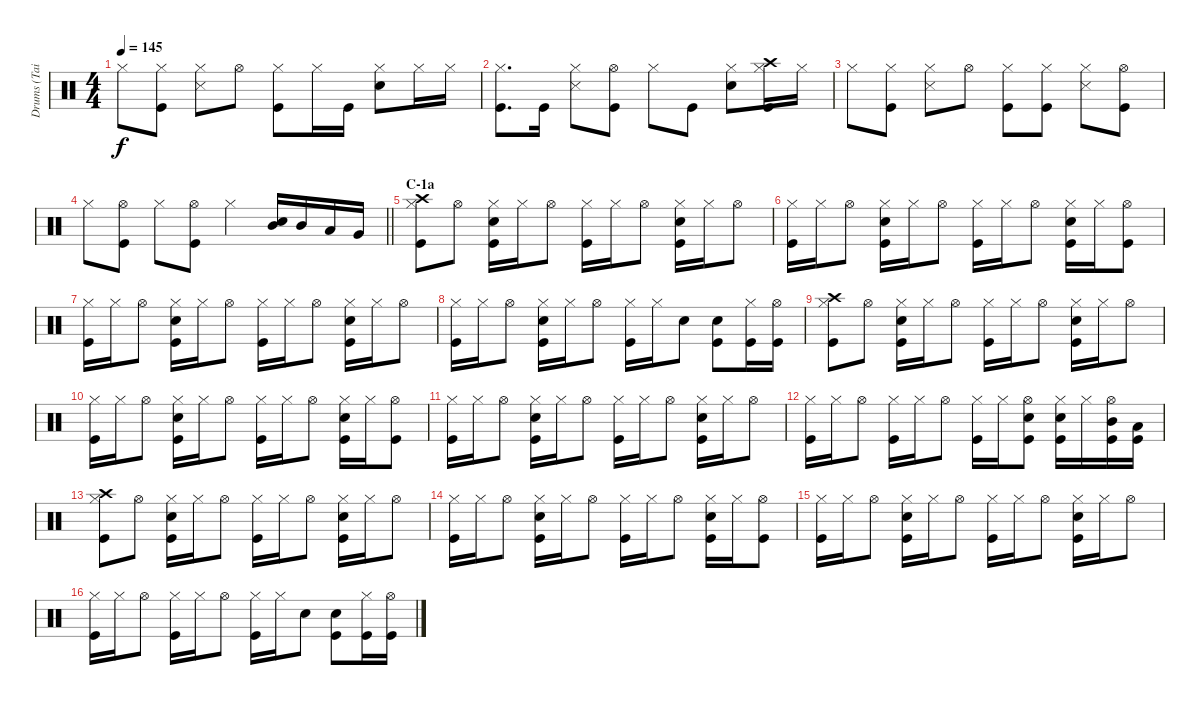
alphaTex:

\track ("Drums (Tainaka Ritsu)" "Drums (Tai") {instrument percussion}
\staff {score}
\articulation defaults
\ts (4 4)
\tempo 145
\clef neutral
\ks c "Hi-Hat (closed)".8{dy f}
("Hi-Hat (closed)" "Kick (hit)").8 ("Hi-Hat (closed)" "Snare (side stick) 3").8 "Hi-Hat (open)".8 ("Hi-Hat (closed)" "Kick (hit)").8 "Hi-Hat (closed)".16 "Kick (hit)".16 ("Hi-Hat (closed)" "Snare (hit) 2").8 "Hi-Hat (closed)".16 "Hi-Hat (closed)".16 |
("Hi-Hat (closed)" "Kick (hit)").8{d} "Kick (hit)".16 ("Hi-Hat (closed)" "Snare (side stick) 3").8 ("Hi-Hat (open)" "Kick (hit)").8 "Hi-Hat (closed)".8 "Kick (hit)".8 ("Hi-Hat (closed)" "Snare (hit) 2").8 ("Hi-Hat (closed)" "Crash high (hit)" "Kick (hit)").16 "Hi-Hat (closed)".16 |
"Hi-Hat (closed)".8 ("Hi-Hat (closed)" "Kick (hit)").8 ("Hi-Hat (closed)" "Snare (side stick) 3").8 "Hi-Hat (open)".8 ("Hi-Hat (closed)" "Kick (hit)").8 ("Hi-Hat (closed)" "Kick (hit)").8 ("Hi-Hat (closed)" "Snare (side stick) 3").8 ("Hi-Hat (open)" "Kick (hit)").8 |
\barLineRight lightlight "Hi-Hat (closed)".8
("Hi-Hat (open)" "Kick (hit)").8 "Hi-Hat (closed)".8 ("Hi-Hat (open)" "Kick (hit)").8 "Hi-Hat (closed)".4 ("Snare (hit) 2" "Mid Tom (hit)").16 "Mid Tom (hit)".16 "Low Tom (hit)".16 "Very Low Tom (hit)".16 |
\section ("" "C-1a")
("Crash high (hit)" "Hi-Hat (closed)" "Kick (hit)").8 "Hi-Hat (open)".8 ("Hi-Hat (closed)" "Snare (hit) 2" "Kick (hit)").16 "Hi-Hat (closed)".16 "Hi-Hat (open)".8 ("Hi-Hat (closed)" "Kick (hit)").16 "Hi-Hat (closed)".16 "Hi-Hat (open)".8 ("Hi-Hat (closed)" "Snare (hit) 2" "Kick (hit)").16 "Hi-Hat (closed)".16 "Hi-Hat (open)".8 |
("Hi-Hat (closed)" "Kick (hit)").16 "Hi-Hat (closed)".16 "Hi-Hat (open)".8 ("Hi-Hat (closed)" "Snare (hit) 2" "Kick (hit)").16 "Hi-Hat (closed)".16 "Hi-Hat (open)".8 ("Hi-Hat (closed)" "Kick (hit)").16 "Hi-Hat (closed)".16 "Hi-Hat (open)".8 ("Hi-Hat (closed)" "Snare (hit) 2" "Kick (hit)").16 "Hi-Hat (closed)".16 ("Hi-Hat (open)" "Kick (hit)").8 |
("Hi-Hat (closed)" "Kick (hit)").16 "Hi-Hat (closed)".16 "Hi-Hat (open)".8 ("Hi-Hat (closed)" "Snare (hit) 2" "Kick (hit)").16 "Hi-Hat (closed)".16 "Hi-Hat (open)".8 ("Hi-Hat (closed)" "Kick (hit)").16 "Hi-Hat (closed)".16 "Hi-Hat (open)".8 ("Hi-Hat (closed)" "Snare (hit) 2" "Kick (hit)").16 "Hi-Hat (closed)".16 "Hi-Hat (open)".8 |
("Hi-Hat (closed)" "Kick (hit)").16 "Hi-Hat (closed)".16 "Hi-Hat (open)".8 ("Hi-Hat (closed)" "Snare (hit) 2" "Kick (hit)").16 "Hi-Hat (closed)".16 "Hi-Hat (open)".8 ("Hi-Hat (closed)" "Kick (hit)").16 "Hi-Hat (closed)".16 "Snare (hit) 2".8 ("Snare (hit) 2" "Kick (hit)").8 ("Hi-Hat (closed)" "Kick (hit)").16 ("Hi-Hat (open)" "Kick (hit)").16 |
("Crash high (hit)" "Hi-Hat (closed)" "Kick (hit)").8 "Hi-Hat (open)".8 ("Hi-Hat (closed)" "Snare (hit) 2" "Kick (hit)").16 "Hi-Hat (closed)".16 "Hi-Hat (open)".8 ("Hi-Hat (closed)" "Kick (hit)").16 "Hi-Hat (closed)".16 "Hi-Hat (open)".8 ("Hi-Hat (closed)" "Snare (hit) 2" "Kick (hit)").16 "Hi-Hat (closed)".16 "Hi-Hat (open)".8 |
("Hi-Hat (closed)" "Kick (hit)").16 "Hi-Hat (closed)".16 "Hi-Hat (open)".8 ("Hi-Hat (closed)" "Snare (hit) 2" "Kick (hit)").16 "Hi-Hat (closed)".16 "Hi-Hat (open)".8 ("Hi-Hat (closed)" "Kick (hit)").16 "Hi-Hat (closed)".16 "Hi-Hat (open)".8 ("Hi-Hat (closed)" "Snare (hit) 2" "Kick (hit)").16 "Hi-Hat (closed)".16 ("Hi-Hat (open)" "Kick (hit)").8 |
("Hi-Hat (closed)" "Kick (hit)").16 "Hi-Hat (closed)".16 "Hi-Hat (open)".8 ("Hi-Hat (closed)" "Snare (hit) 2" "Kick (hit)").16 "Hi-Hat (closed)".16 "Hi-Hat (open)".8 ("Hi-Hat (closed)" "Kick (hit)").16 "Hi-Hat (closed)".16 "Hi-Hat (open)".8 ("Hi-Hat (closed)" "Snare (hit) 2" "Kick (hit)").16 "Hi-Hat (closed)".16 "Hi-Hat (open)".8 |
("Hi-Hat (closed)" "Kick (hit)").16 "Hi-Hat (closed)".16 "Hi-Hat (open)".8 ("Hi-Hat (closed)" "Kick (hit)").16 "Hi-Hat (closed)".16 "Hi-Hat (open)".8 ("Hi-Hat (closed)" "Kick (hit)").16 "Hi-Hat (closed)".16 ("Hi-Hat (open)" "Snare (hit) 2" "Kick (hit)").8 ("Hi-Hat (closed)" "Snare (hit) 2" "Kick (hit)").16 "Hi-Hat (closed)".16 ("Hi-Hat (open)" "Mid Tom (hit)" "Kick (hit)").16 ("Low Tom (hit)" "Kick (hit)").16 |
("Crash high (hit)" "Hi-Hat (closed)" "Kick (hit)").8 "Hi-Hat (open)".8 ("Hi-Hat (closed)" "Snare (hit) 2" "Kick (hit)").16 "Hi-Hat (closed)".16 "Hi-Hat (open)".8 ("Hi-Hat (closed)" "Kick (hit)").16 "Hi-Hat (closed)".16 "Hi-Hat (open)".8 ("Hi-Hat (closed)" "Snare (hit) 2" "Kick (hit)").16 "Hi-Hat (closed)".16 "Hi-Hat (open)".8 |
("Hi-Hat (closed)" "Kick (hit)").16 "Hi-Hat (closed)".16 "Hi-Hat (open)".8 ("Hi-Hat (closed)" "Snare (hit) 2" "Kick (hit)").16 "Hi-Hat (closed)".16 "Hi-Hat (open)".8 ("Hi-Hat (closed)" "Kick (hit)").16 "Hi-Hat (closed)".16 "Hi-Hat (open)".8 ("Hi-Hat (closed)" "Snare (hit) 2" "Kick (hit)").16 "Hi-Hat (closed)".16 ("Hi-Hat (open)" "Kick (hit)").8 |
("Hi-Hat (closed)" "Kick (hit)").16 "Hi-Hat (closed)".16 "Hi-Hat (open)".8 ("Hi-Hat (closed)" "Snare (hit) 2" "Kick (hit)").16 "Hi-Hat (closed)".16 "Hi-Hat (open)".8 ("Hi-Hat (closed)" "Kick (hit)").16 "Hi-Hat (closed)".16 "Hi-Hat (open)".8 ("Hi-Hat (closed)" "Snare (hit) 2" "Kick (hit)").16 "Hi-Hat (closed)".16 "Hi-Hat (open)".8 |
("Hi-Hat (closed)" "Kick (hit)").16 "Hi-Hat (closed)".16 "Hi-Hat (open)".8 ("Hi-Hat (closed)" "Kick (hit)").16 "Hi-Hat (closed)".16 "Hi-Hat (open)".8 ("Hi-Hat (closed)" "Kick (hit)").16 "Hi-Hat (closed)".16 "Snare (hit) 2".8 ("Snare (hit) 2" "Kick (hit)").8 ("Hi-Hat (closed)" "Kick (hit)").16 ("Hi-Hat (open)" "Kick (hit)").16
